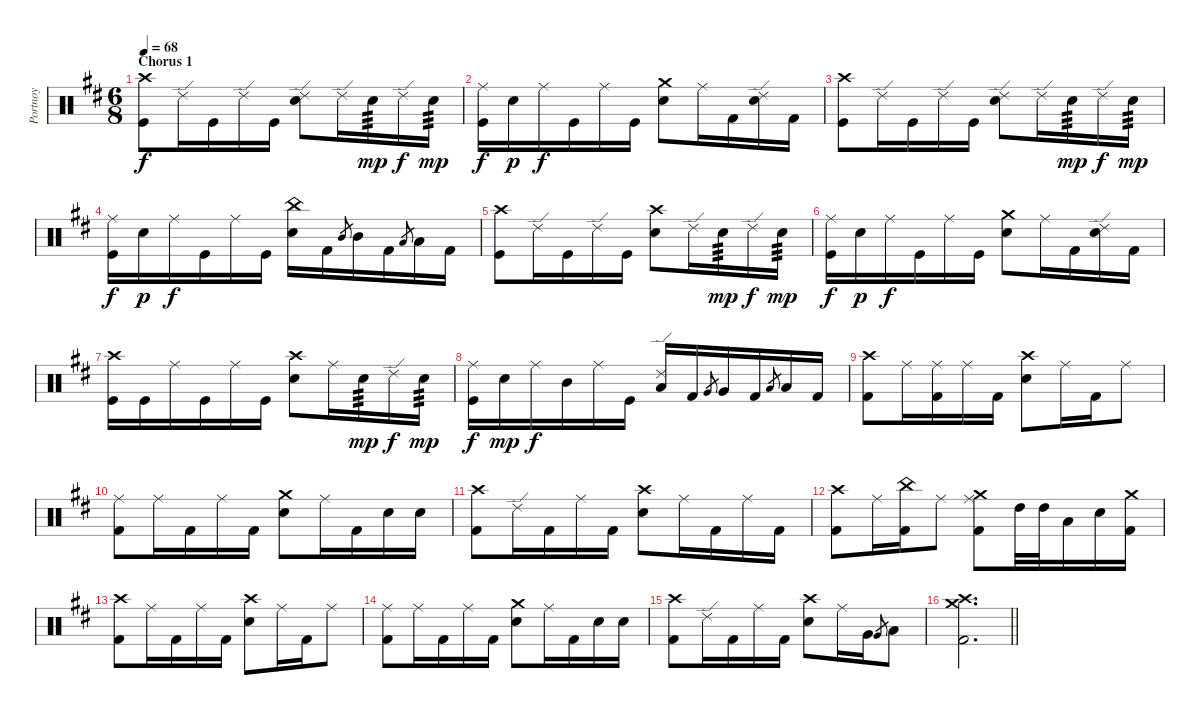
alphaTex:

\track ("Portnoy" "Portnoy") {instrument percussion}
\staff {score}
\articulation defaults
\ts (6 8)
\section ("" "Chorus 1")
\tempo 68
\clef neutral
\ks d
("Kick (hit)" "Crash high (hit)").8{dy f} "Ride (edge) 2".16 "Kick (hit)".16 "Ride (edge) 2".16 "Kick (hit)".16 ("Snare (hit) 2" "Ride (edge) 2").8 "Ride (edge) 2".16 "Snare (hit) 2".16{tp 3 dy mp} "Ride (edge) 2".16{dy f} "Snare (hit) 2".16{tp 3 dy mp} |
("Kick (hit)" "Ride (middle)").16{dy f} "Snare (hit) 2".16{dy p} "Ride (middle)".16{dy f} "Kick (hit)".16 "Ride (middle)".16 "Kick (hit)".16 ("Snare (hit) 2" "Crash medium (hit)").8 "Ride (middle)".16 "Kick (hit) 2".16 ("Ride (edge) 2" "Snare (hit) 2").16 "Kick (hit) 2".16 |
("Kick (hit)" "Crash high (hit)").8 "Ride (edge) 2".16 "Kick (hit)".16 "Ride (edge) 2".16 "Kick (hit)".16 ("Snare (hit) 2" "Ride (edge) 2").8 "Ride (edge) 2".16 "Snare (hit) 2".16{tp 3 dy mp} "Ride (edge) 2".16{dy f} "Snare (hit) 2".16{tp 3 dy mp} |
("Kick (hit)" "Ride (middle)").16{dy f} "Snare (hit) 2".16{dy p} "Ride (middle)".16{dy f} "Kick (hit)".16 "Ride (middle)".16 "Kick (hit)".16 ("China (hit)" "Snare (hit) 2").16 "Kick (hit) 2".16 "Mid Tom (hit)".8{gr} "Mid Tom (hit)".16 "Kick (hit) 2".16 "Low Tom (hit)".8{gr} "Low Tom (hit)".16 "Kick (hit) 2".16 |
("Kick (hit)" "Crash high (hit)").8 "Ride (edge) 2".16 "Kick (hit)".16 "Ride (edge) 2".16 "Kick (hit)".16 ("Snare (hit) 2" "Crash high (hit)").8 "Ride (edge) 2".16 "Snare (hit) 2".16{tp 3 dy mp} "Ride (edge) 2".16{dy f} "Snare (hit) 2".16{tp 3 dy mp} |
("Kick (hit)" "Ride (middle)").16{dy f} "Snare (hit) 2".16{dy p} "Ride (middle)".16{dy f} "Kick (hit)".16 "Ride (middle)".16 "Kick (hit)".16 ("Snare (hit) 2" "Crash medium (hit)").8 "Ride (middle)".16 "Kick (hit) 2".16 ("Ride (edge) 2" "Snare (hit) 2").16 "Kick (hit) 2".16 |
("Kick (hit)" "Crash high (hit)").16 "Kick (hit)".16 "Ride (middle)".16 "Kick (hit)".16 "Ride (middle)".16 "Kick (hit)".16 ("Electric Snare (hit)" "Crash high (hit)").8 "Ride (middle)".16 "Snare (hit) 2".16{tp 3 dy mp} "Ride (edge) 2".16{dy f} "Snare (hit) 2".16{tp 3 dy mp} |
("Kick (hit)" "Ride (middle)").16{dy f} "Snare (hit) 2".16{dy mp} "Ride (middle)".16{dy f} "Mid Tom (hit)".16 "Ride (middle)".16 "Kick (hit)".16 ("Low Tom (hit)" "Ride (edge) 2").16 "Kick (hit) 2".16 "Very Low Tom (hit)".8{gr} "Very Low Tom (hit)".16 "Kick (hit) 2".16 "Low Floor Tom (hit)".8{gr} "Low Floor Tom (hit)".16 "Kick (hit) 2".16 |
("Crash high (hit)" "Kick (hit) 2").8 "Ride (middle)".16 ("Ride (middle)" "Kick (hit) 2").16 "Ride (middle)".16 "Kick (hit) 2".16 ("Crash high (hit)" "Snare (hit) 2").8 "Ride (middle)".16 "Kick (hit) 2".16 "Ride (middle)".8 |
("Ride (middle)" "Kick (hit) 2").8 "Ride (middle)".16 "Kick (hit) 2".16 "Ride (middle)".16 "Kick (hit) 2".16 ("Snare (hit) 2" "Crash medium (hit)").8 "Ride (middle)".16 "Kick (hit) 2".16 "Snare (hit) 2".16 "Snare (hit) 2".16 |
("Crash high (hit)" "Kick (hit) 2").8 "Ride (edge) 2".16 "Kick (hit) 2".16 "Ride (middle)".16 "Kick (hit) 2".16 ("Crash high (hit)" "Snare (hit) 2").8 "Ride (middle)".16 "Kick (hit) 2".16 "Ride (middle)".16 "Kick (hit) 2".16 |
("Crash high (hit)" "Kick (hit) 2").8 "Ride (middle)".16 ("Kick (hit) 2" "China (hit)").16 "Ride (middle)".8 ("Crash medium (hit)" "Kick (hit) 2" "Ride (middle)").8 "High Tom (hit)".32 "High Tom (hit)".32 "Low Tom (hit)".16 "Snare (hit) 2".16 ("Crash medium (hit)" "Kick (hit) 2").16 |
("Crash high (hit)" "Kick (hit) 2").8 "Ride (middle)".16 "Kick (hit) 2".16 "Ride (middle)".16 "Kick (hit) 2".16 ("Crash high (hit)" "Snare (hit) 2").8 "Ride (middle)".16 "Kick (hit) 2".16 "Ride (middle)".8 |
("Ride (middle)" "Kick (hit) 2").8 "Ride (middle)".16 "Kick (hit) 2".16 "Ride (middle)".16 "Kick (hit) 2".16 ("Snare (hit) 2" "Crash medium (hit)").8 "Ride (middle)".16 "Kick (hit) 2".16 "Snare (hit) 2".16 "Snare (hit) 2".16 |
("Crash high (hit)" "Kick (hit) 2").8 "Ride (edge) 2".16 "Kick (hit) 2".16 "Ride (middle)".16 "Kick (hit) 2".16 ("Crash high (hit)" "Snare (hit) 2").8 "Ride (middle)".16 "Very Low Tom (hit)".16 "Very Low Tom (hit)".8{gr} "Low Floor Tom (hit)".8 |
\barLineRight lightlight
("Crash high (hit)" "Kick (hit) 2" "Crash medium (hit)").2{d}
